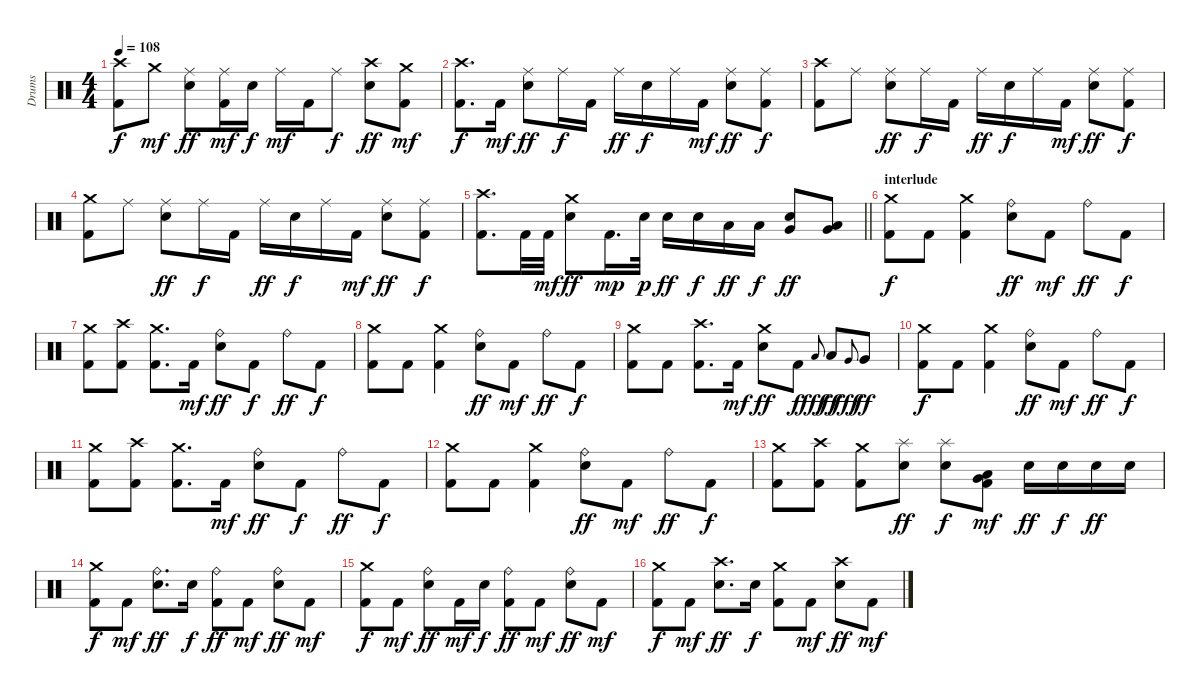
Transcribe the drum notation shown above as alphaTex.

\track ("Drums" "Drums") {instrument percussion}
\staff {score}
\articulation defaults
\ts (4 4)
\tempo 108
\clef neutral
\ks c
("Crash high (hit)" "Kick (hit) 2").8{dy f} "Crash medium (hit)".8{dy mf} ("Ride (middle)" "Electric Snare (hit)").8{dy ff} ("Ride (middle)" "Kick (hit) 2").16{dy mf} "Electric Snare (hit)".16{dy f} "Ride (middle)".16{dy mf} "Kick (hit) 2".16 "Ride (middle)".8{dy f} ("Crash high (hit)" "Electric Snare (hit)").8{dy ff} ("Crash medium (hit)" "Kick (hit) 2").8{dy mf} |
("Crash high (hit)" "Kick (hit) 2").8{d dy f} "Kick (hit) 2".16{dy mf} ("Ride (middle)" "Electric Snare (hit)").8{dy ff} "Ride (middle)".16{dy f} "Kick (hit) 2".16 "Ride (middle)".16{dy ff} "Electric Snare (hit)".16{dy f} "Ride (middle)".16 "Kick (hit) 2".16{dy mf} ("Ride (middle)" "Electric Snare (hit)").8{dy ff} ("Ride (middle)" "Kick (hit) 2").8{dy f} |
("Crash high (hit)" "Kick (hit) 2").8 "Ride (middle)".8 ("Ride (middle)" "Electric Snare (hit)").8{dy ff} "Ride (middle)".16{dy f} "Kick (hit) 2".16 "Ride (middle)".16{dy ff} "Electric Snare (hit)".16{dy f} "Ride (middle)".16 "Kick (hit) 2".16{dy mf} ("Ride (middle)" "Electric Snare (hit)").8{dy ff} ("Ride (middle)" "Kick (hit) 2").8{dy f} |
("Crash medium (hit)" "Kick (hit) 2").8 "Ride (middle)".8 ("Ride (middle)" "Electric Snare (hit)").8{dy ff} "Ride (middle)".16{dy f} "Kick (hit) 2".16 "Ride (middle)".16{dy ff} "Electric Snare (hit)".16{dy f} "Ride (middle)".16 "Kick (hit) 2".16{dy mf} ("Ride (middle)" "Electric Snare (hit)").8{dy ff} ("Ride (middle)" "Kick (hit) 2").8{dy f} |
\barLineRight lightlight
("Crash high (hit)" "Kick (hit) 2").8{d} "Kick (hit) 2".32 "Kick (hit) 2".32{dy mf} ("Crash medium (hit)" "Electric Snare (hit)").8{dy ff} "Kick (hit) 2".16{d dy mp} "Electric Snare (hit)".32{dy p} "Electric Snare (hit)".16{dy ff} "Electric Snare (hit)".16{dy f} "Low Tom (hit)".16{dy ff} "Low Tom (hit)".16{dy f} ("Very Low Tom (hit)" "Electric Snare (hit)").8{dy ff} ("Very Low Tom (hit)" "Low Tom (hit)").8 |
\section ("" "interlude")
("Crash medium (hit)" "Kick (hit) 2").8{dy f} "Kick (hit) 2".8 ("Crash medium (hit)" "Kick (hit) 2").4 ("Ride (bell)" "Electric Snare (hit)").8{dy ff} "Kick (hit) 2".8{dy mf} "Ride (bell)".8{dy ff} "Kick (hit) 2".8{dy f} |
("Crash medium (hit)" "Kick (hit) 2").8 ("Crash high (hit)" "Kick (hit) 2").8 ("Crash medium (hit)" "Kick (hit) 2").8{d} "Kick (hit) 2".16{dy mf} ("Ride (bell)" "Electric Snare (hit)").8{dy ff} "Kick (hit) 2".8{dy f} "Ride (bell)".8{dy ff} "Kick (hit) 2".8{dy f} |
("Crash medium (hit)" "Kick (hit) 2").8 "Kick (hit) 2".8 ("Crash medium (hit)" "Kick (hit) 2").4 ("Ride (bell)" "Electric Snare (hit)").8{dy ff} "Kick (hit) 2".8{dy mf} "Ride (bell)".8{dy ff} "Kick (hit) 2".8{dy f} |
("Crash medium (hit)" "Kick (hit) 2").8 "Kick (hit) 2".8 ("Crash high (hit)" "Kick (hit) 2").8{d} "Kick (hit) 2".16{dy mf} ("Crash medium (hit)" "Electric Snare (hit)").8{dy ff} "Kick (hit) 2".8{dy f} "Low Tom (hit)".8{gr onbeat dy fff} "Low Tom (hit)".8{dy ff} "Very Low Tom (hit)".8{gr onbeat dy fff} "Very Low Tom (hit)".8{dy ff} |
("Crash medium (hit)" "Kick (hit) 2").8{dy f} "Kick (hit) 2".8 ("Crash medium (hit)" "Kick (hit) 2").4 ("Ride (bell)" "Electric Snare (hit)").8{dy ff} "Kick (hit) 2".8{dy mf} "Ride (bell)".8{dy ff} "Kick (hit) 2".8{dy f} |
("Crash medium (hit)" "Kick (hit) 2").8 ("Crash high (hit)" "Kick (hit) 2").8 ("Crash medium (hit)" "Kick (hit) 2").8{d} "Kick (hit) 2".16{dy mf} ("Ride (bell)" "Electric Snare (hit)").8{dy ff} "Kick (hit) 2".8{dy f} "Ride (bell)".8{dy ff} "Kick (hit) 2".8{dy f} |
("Crash medium (hit)" "Kick (hit) 2").8 "Kick (hit) 2".8 ("Crash medium (hit)" "Kick (hit) 2").4 ("Ride (bell)" "Electric Snare (hit)").8{dy ff} "Kick (hit) 2".8{dy mf} "Ride (bell)".8{dy ff} "Kick (hit) 2".8{dy f} |
("Crash medium (hit)" "Kick (hit) 2").8 ("Crash high (hit)" "Kick (hit) 2").8 ("Crash medium (hit)" "Kick (hit) 2").8 ("Splash (hit)" "Electric Snare (hit)").8{dy ff} ("Splash (hit)" "Electric Snare (hit)").8{dy f} ("Very Low Tom (hit)" "Low Tom (hit)" "Kick (hit) 2").8{dy mf} "Electric Snare (hit)".16{dy ff} "Electric Snare (hit)".16{dy f} "Electric Snare (hit)".16{dy ff} "Electric Snare (hit)".16 |
("Crash medium (hit)" "Kick (hit) 2").8{dy f} "Kick (hit) 2".8{dy mf} ("Ride (bell)" "Electric Snare (hit)").8{d dy ff} "Electric Snare (hit)".16{dy f} ("Ride (bell)" "Kick (hit) 2").8{dy ff} "Kick (hit) 2".8{dy mf} ("Ride (bell)" "Electric Snare (hit)").8{dy ff} "Kick (hit) 2".8{dy mf} |
("Crash medium (hit)" "Kick (hit) 2").8{dy f} "Kick (hit) 2".8{dy mf} ("Ride (bell)" "Electric Snare (hit)").8{dy ff} "Kick (hit) 2".16{dy mf} "Electric Snare (hit)".16{dy f} ("Ride (bell)" "Kick (hit) 2").8{dy ff} "Kick (hit) 2".8{dy mf} ("Ride (bell)" "Electric Snare (hit)").8{dy ff} "Kick (hit) 2".8{dy mf} |
("Crash medium (hit)" "Kick (hit) 2").8{dy f} "Kick (hit) 2".8{dy mf} ("Crash high (hit)" "Electric Snare (hit)").8{d dy ff} "Electric Snare (hit)".16{dy f} ("Crash medium (hit)" "Kick (hit) 2").8 "Kick (hit) 2".8{dy mf} ("Crash high (hit)" "Electric Snare (hit)").8{dy ff} "Kick (hit) 2".8{dy mf}
